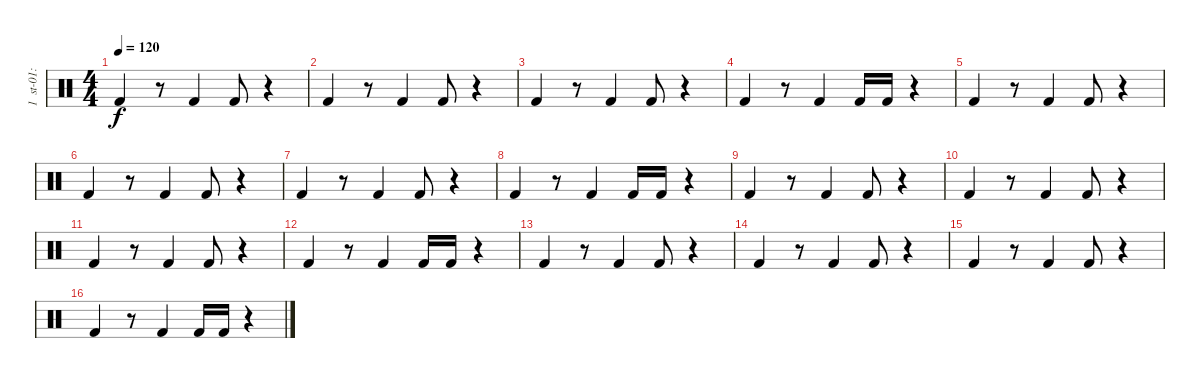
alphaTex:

\track (" 1  st-01:bassdrum2" " 1  st-01:") {instrument percussion}
\staff {score}
\articulation defaults
\ts (4 4)
\tempo 120
\clef neutral
\ks c "Kick (hit) 2".4{dy f}
r.8 "Kick (hit) 2".4 "Kick (hit) 2".8 r.4 |
"Kick (hit) 2".4 r.8 "Kick (hit) 2".4 "Kick (hit) 2".8 r.4 |
"Kick (hit) 2".4 r.8 "Kick (hit) 2".4 "Kick (hit) 2".8 r.4 |
"Kick (hit) 2".4 r.8 "Kick (hit) 2".4 "Kick (hit) 2".16 "Kick (hit) 2".16 r.4 |
"Kick (hit) 2".4 r.8 "Kick (hit) 2".4 "Kick (hit) 2".8 r.4 |
"Kick (hit) 2".4 r.8 "Kick (hit) 2".4 "Kick (hit) 2".8 r.4 |
"Kick (hit) 2".4 r.8 "Kick (hit) 2".4 "Kick (hit) 2".8 r.4 |
"Kick (hit) 2".4 r.8 "Kick (hit) 2".4 "Kick (hit) 2".16 "Kick (hit) 2".16 r.4 |
"Kick (hit) 2".4 r.8 "Kick (hit) 2".4 "Kick (hit) 2".8 r.4 |
"Kick (hit) 2".4 r.8 "Kick (hit) 2".4 "Kick (hit) 2".8 r.4 |
"Kick (hit) 2".4 r.8 "Kick (hit) 2".4 "Kick (hit) 2".8 r.4 |
"Kick (hit) 2".4 r.8 "Kick (hit) 2".4 "Kick (hit) 2".16 "Kick (hit) 2".16 r.4 |
"Kick (hit) 2".4 r.8 "Kick (hit) 2".4 "Kick (hit) 2".8 r.4 |
"Kick (hit) 2".4 r.8 "Kick (hit) 2".4 "Kick (hit) 2".8 r.4 |
"Kick (hit) 2".4 r.8 "Kick (hit) 2".4 "Kick (hit) 2".8 r.4 |
"Kick (hit) 2".4 r.8 "Kick (hit) 2".4 "Kick (hit) 2".16 "Kick (hit) 2".16 r.4
